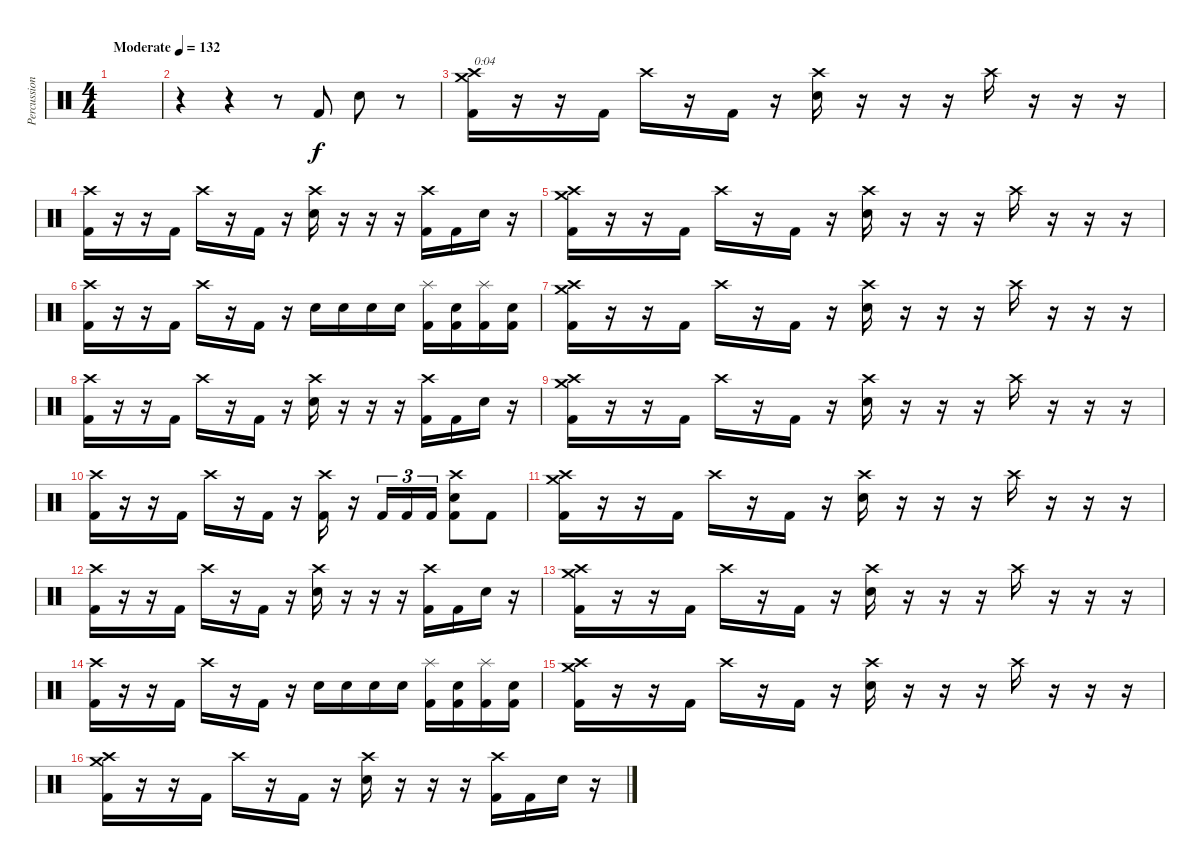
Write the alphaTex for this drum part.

\track ("Percussion" "Percussion") {instrument percussion}
\staff {score}
\articulation defaults
\ts (4 4)
\tempo (132 "Moderate")
\clef neutral
\ks c
|
r.4 r.4 r.8 "Kick (hit) 2".8 "Snare (hit) 2".8 r.8 |
("Kick (hit) 2" "Crash medium (hit)" "Crash high (hit)").16{txt "0:04"} r.16 r.16 "Kick (hit) 2".16 "Crash high (hit)".16 r.16 "Kick (hit) 2".16 r.16 ("Snare (hit) 2" "Crash high (hit)").16 r.16 r.16 r.16 "Crash high (hit)".16 r.16 r.16 r.16 |
("Kick (hit) 2" "Crash high (hit)").16 r.16 r.16 "Kick (hit) 2".16 "Crash high (hit)".16 r.16 "Kick (hit) 2".16 r.16 ("Snare (hit) 2" "Crash high (hit)").16 r.16 r.16 r.16 ("Kick (hit) 2" "Crash high (hit)").16 "Kick (hit) 2".16 "Snare (hit) 2".16 r.16 |
("Kick (hit) 2" "Crash medium (hit)" "Crash high (hit)").16 r.16 r.16 "Kick (hit) 2".16 "Crash high (hit)".16 r.16 "Kick (hit) 2".16 r.16 ("Snare (hit) 2" "Crash high (hit)").16 r.16 r.16 r.16 "Crash high (hit)".16 r.16 r.16 r.16 |
("Kick (hit) 2" "Crash high (hit)").16 r.16 r.16 "Kick (hit) 2".16 "Crash high (hit)".16 r.16 "Kick (hit) 2".16 r.16 "Snare (hit) 2".16 "Snare (hit) 2".16 "Snare (hit) 2".16 "Snare (hit) 2".16 ("Kick (hit) 2" "Splash (hit)").16 ("Kick (hit) 2" "Snare (hit) 2").16 ("Kick (hit) 2" "Splash (hit)").16 ("Kick (hit) 2" "Snare (hit) 2").16 |
("Kick (hit) 2" "Crash medium (hit)" "Crash high (hit)").16 r.16 r.16 "Kick (hit) 2".16 "Crash high (hit)".16 r.16 "Kick (hit) 2".16 r.16 ("Snare (hit) 2" "Crash high (hit)").16 r.16 r.16 r.16 "Crash high (hit)".16 r.16 r.16 r.16 |
("Kick (hit) 2" "Crash high (hit)").16 r.16 r.16 "Kick (hit) 2".16 "Crash high (hit)".16 r.16 "Kick (hit) 2".16 r.16 ("Snare (hit) 2" "Crash high (hit)").16 r.16 r.16 r.16 ("Kick (hit) 2" "Crash high (hit)").16 "Kick (hit) 2".16 "Snare (hit) 2".16 r.16 |
("Kick (hit) 2" "Crash medium (hit)" "Crash high (hit)").16 r.16 r.16 "Kick (hit) 2".16 "Crash high (hit)".16 r.16 "Kick (hit) 2".16 r.16 ("Snare (hit) 2" "Crash high (hit)").16 r.16 r.16 r.16 "Crash high (hit)".16 r.16 r.16 r.16 |
("Kick (hit) 2" "Crash high (hit)").16 r.16 r.16 "Kick (hit) 2".16 "Crash high (hit)".16 r.16 "Kick (hit) 2".16 r.16 ("Kick (hit) 2" "Crash high (hit)").16 r.16 "Kick (hit) 2".16{tu (3 2)} "Kick (hit) 2".16{tu (3 2)} "Kick (hit) 2".16{tu (3 2)} ("Kick (hit) 2" "Snare (hit) 2" "Crash high (hit)").8 "Kick (hit) 2".8 |
("Kick (hit) 2" "Crash medium (hit)" "Crash high (hit)").16 r.16 r.16 "Kick (hit) 2".16 "Crash high (hit)".16 r.16 "Kick (hit) 2".16 r.16 ("Snare (hit) 2" "Crash high (hit)").16 r.16 r.16 r.16 "Crash high (hit)".16 r.16 r.16 r.16 |
("Kick (hit) 2" "Crash high (hit)").16 r.16 r.16 "Kick (hit) 2".16 "Crash high (hit)".16 r.16 "Kick (hit) 2".16 r.16 ("Snare (hit) 2" "Crash high (hit)").16 r.16 r.16 r.16 ("Kick (hit) 2" "Crash high (hit)").16 "Kick (hit) 2".16 "Snare (hit) 2".16 r.16 |
("Kick (hit) 2" "Crash medium (hit)" "Crash high (hit)").16 r.16 r.16 "Kick (hit) 2".16 "Crash high (hit)".16 r.16 "Kick (hit) 2".16 r.16 ("Snare (hit) 2" "Crash high (hit)").16 r.16 r.16 r.16 "Crash high (hit)".16 r.16 r.16 r.16 |
("Kick (hit) 2" "Crash high (hit)").16 r.16 r.16 "Kick (hit) 2".16 "Crash high (hit)".16 r.16 "Kick (hit) 2".16 r.16 "Snare (hit) 2".16 "Snare (hit) 2".16 "Snare (hit) 2".16 "Snare (hit) 2".16 ("Kick (hit) 2" "Splash (hit)").16 ("Kick (hit) 2" "Snare (hit) 2").16 ("Kick (hit) 2" "Splash (hit)").16 ("Kick (hit) 2" "Snare (hit) 2").16 |
("Kick (hit) 2" "Crash medium (hit)" "Crash high (hit)").16 r.16 r.16 "Kick (hit) 2".16 "Crash high (hit)".16 r.16 "Kick (hit) 2".16 r.16 ("Snare (hit) 2" "Crash high (hit)").16 r.16 r.16 r.16 "Crash high (hit)".16 r.16 r.16 r.16 |
("Kick (hit) 2" "Crash medium (hit)" "Crash high (hit)").16 r.16 r.16 "Kick (hit) 2".16 "Crash high (hit)".16 r.16 "Kick (hit) 2".16 r.16 ("Snare (hit) 2" "Crash high (hit)").16 r.16 r.16 r.16 ("Kick (hit) 2" "Crash high (hit)").16 "Kick (hit) 2".16 "Snare (hit) 2".16 r.16
